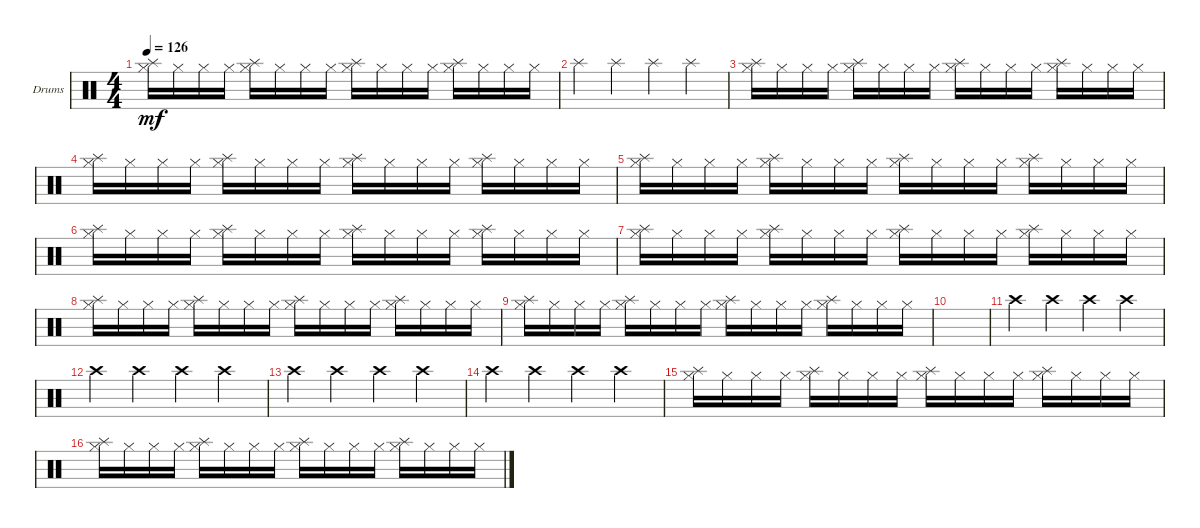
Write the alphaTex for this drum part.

\defaultSystemsLayout 4
\bracketExtendMode groupsimilarinstruments
\firstSystemTrackNameOrientation horizontal
\otherSystemsTrackNameOrientation horizontal
\track ("Drumkit" "Drums") {instrument percussion}
\staff {score}
\articulation defaults
\ts (4 4)
\tempo 126
\clef neutral
\ks c
("Hi-Hat (closed)" "Splash (hit)").16{dy mf} "Hi-Hat (closed)".16 "Hi-Hat (closed)".16 "Hi-Hat (closed)".16 ("Hi-Hat (closed)" "Splash (hit)").16 "Hi-Hat (closed)".16 "Hi-Hat (closed)".16 "Hi-Hat (closed)".16 ("Hi-Hat (closed)" "Splash (hit)").16 "Hi-Hat (closed)".16 "Hi-Hat (closed)".16 "Hi-Hat (closed)".16 ("Hi-Hat (closed)" "Splash (hit)").16 "Hi-Hat (closed)".16 "Hi-Hat (closed)".16 "Hi-Hat (closed)".16 |
"Splash (hit)".4 "Splash (hit)".4 "Splash (hit)".4 "Splash (hit)".4 |
("Hi-Hat (closed)" "Splash (hit)").16 "Hi-Hat (closed)".16 "Hi-Hat (closed)".16 "Hi-Hat (closed)".16 ("Hi-Hat (closed)" "Splash (hit)").16 "Hi-Hat (closed)".16 "Hi-Hat (closed)".16 "Hi-Hat (closed)".16 ("Hi-Hat (closed)" "Splash (hit)").16 "Hi-Hat (closed)".16 "Hi-Hat (closed)".16 "Hi-Hat (closed)".16 ("Hi-Hat (closed)" "Splash (hit)").16 "Hi-Hat (closed)".16 "Hi-Hat (closed)".16 "Hi-Hat (closed)".16 |
("Hi-Hat (closed)" "Splash (hit)").16 "Hi-Hat (closed)".16 "Hi-Hat (closed)".16 "Hi-Hat (closed)".16 ("Hi-Hat (closed)" "Splash (hit)").16 "Hi-Hat (closed)".16 "Hi-Hat (closed)".16 "Hi-Hat (closed)".16 ("Hi-Hat (closed)" "Splash (hit)").16 "Hi-Hat (closed)".16 "Hi-Hat (closed)".16 "Hi-Hat (closed)".16 ("Hi-Hat (closed)" "Splash (hit)").16 "Hi-Hat (closed)".16 "Hi-Hat (closed)".16 "Hi-Hat (closed)".16 |
("Hi-Hat (closed)" "Splash (hit)").16 "Hi-Hat (closed)".16 "Hi-Hat (closed)".16 "Hi-Hat (closed)".16 ("Hi-Hat (closed)" "Splash (hit)").16 "Hi-Hat (closed)".16 "Hi-Hat (closed)".16 "Hi-Hat (closed)".16 ("Hi-Hat (closed)" "Splash (hit)").16 "Hi-Hat (closed)".16 "Hi-Hat (closed)".16 "Hi-Hat (closed)".16 ("Hi-Hat (closed)" "Splash (hit)").16 "Hi-Hat (closed)".16 "Hi-Hat (closed)".16 "Hi-Hat (closed)".16 |
("Hi-Hat (closed)" "Splash (hit)").16 "Hi-Hat (closed)".16 "Hi-Hat (closed)".16 "Hi-Hat (closed)".16 ("Hi-Hat (closed)" "Splash (hit)").16 "Hi-Hat (closed)".16 "Hi-Hat (closed)".16 "Hi-Hat (closed)".16 ("Hi-Hat (closed)" "Splash (hit)").16 "Hi-Hat (closed)".16 "Hi-Hat (closed)".16 "Hi-Hat (closed)".16 ("Hi-Hat (closed)" "Splash (hit)").16 "Hi-Hat (closed)".16 "Hi-Hat (closed)".16 "Hi-Hat (closed)".16 |
("Hi-Hat (closed)" "Splash (hit)").16 "Hi-Hat (closed)".16 "Hi-Hat (closed)".16 "Hi-Hat (closed)".16 ("Hi-Hat (closed)" "Splash (hit)").16 "Hi-Hat (closed)".16 "Hi-Hat (closed)".16 "Hi-Hat (closed)".16 ("Hi-Hat (closed)" "Splash (hit)").16 "Hi-Hat (closed)".16 "Hi-Hat (closed)".16 "Hi-Hat (closed)".16 ("Hi-Hat (closed)" "Splash (hit)").16 "Hi-Hat (closed)".16 "Hi-Hat (closed)".16 "Hi-Hat (closed)".16 |
("Hi-Hat (closed)" "Splash (hit)").16 "Hi-Hat (closed)".16 "Hi-Hat (closed)".16 "Hi-Hat (closed)".16 ("Hi-Hat (closed)" "Splash (hit)").16 "Hi-Hat (closed)".16 "Hi-Hat (closed)".16 "Hi-Hat (closed)".16 ("Hi-Hat (closed)" "Splash (hit)").16 "Hi-Hat (closed)".16 "Hi-Hat (closed)".16 "Hi-Hat (closed)".16 ("Hi-Hat (closed)" "Splash (hit)").16 "Hi-Hat (closed)".16 "Hi-Hat (closed)".16 "Hi-Hat (closed)".16 |
("Hi-Hat (closed)" "Splash (hit)").16 "Hi-Hat (closed)".16 "Hi-Hat (closed)".16 "Hi-Hat (closed)".16 ("Hi-Hat (closed)" "Splash (hit)").16 "Hi-Hat (closed)".16 "Hi-Hat (closed)".16 "Hi-Hat (closed)".16 ("Hi-Hat (closed)" "Splash (hit)").16 "Hi-Hat (closed)".16 "Hi-Hat (closed)".16 "Hi-Hat (closed)".16 ("Hi-Hat (closed)" "Splash (hit)").16 "Hi-Hat (closed)".16 "Hi-Hat (closed)".16 "Hi-Hat (closed)".16 |
|
"Crash high (hit)".4 "Crash high (hit)".4 "Crash high (hit)".4 "Crash high (hit)".4 |
"Crash high (hit)".4 "Crash high (hit)".4 "Crash high (hit)".4 "Crash high (hit)".4 |
"Crash high (hit)".4 "Crash high (hit)".4 "Crash high (hit)".4 "Crash high (hit)".4 |
"Crash high (hit)".4 "Crash high (hit)".4 "Crash high (hit)".4 "Crash high (hit)".4 |
("Hi-Hat (closed)" "Splash (hit)").16 "Hi-Hat (closed)".16 "Hi-Hat (closed)".16 "Hi-Hat (closed)".16 ("Hi-Hat (closed)" "Splash (hit)").16 "Hi-Hat (closed)".16 "Hi-Hat (closed)".16 "Hi-Hat (closed)".16 ("Hi-Hat (closed)" "Splash (hit)").16 "Hi-Hat (closed)".16 "Hi-Hat (closed)".16 "Hi-Hat (closed)".16 ("Hi-Hat (closed)" "Splash (hit)").16 "Hi-Hat (closed)".16 "Hi-Hat (closed)".16 "Hi-Hat (closed)".16 |
("Hi-Hat (closed)" "Splash (hit)").16 "Hi-Hat (closed)".16 "Hi-Hat (closed)".16 "Hi-Hat (closed)".16 ("Hi-Hat (closed)" "Splash (hit)").16 "Hi-Hat (closed)".16 "Hi-Hat (closed)".16 "Hi-Hat (closed)".16 ("Hi-Hat (closed)" "Splash (hit)").16 "Hi-Hat (closed)".16 "Hi-Hat (closed)".16 "Hi-Hat (closed)".16 ("Hi-Hat (closed)" "Splash (hit)").16 "Hi-Hat (closed)".16 "Hi-Hat (closed)".16 "Hi-Hat (closed)".16
